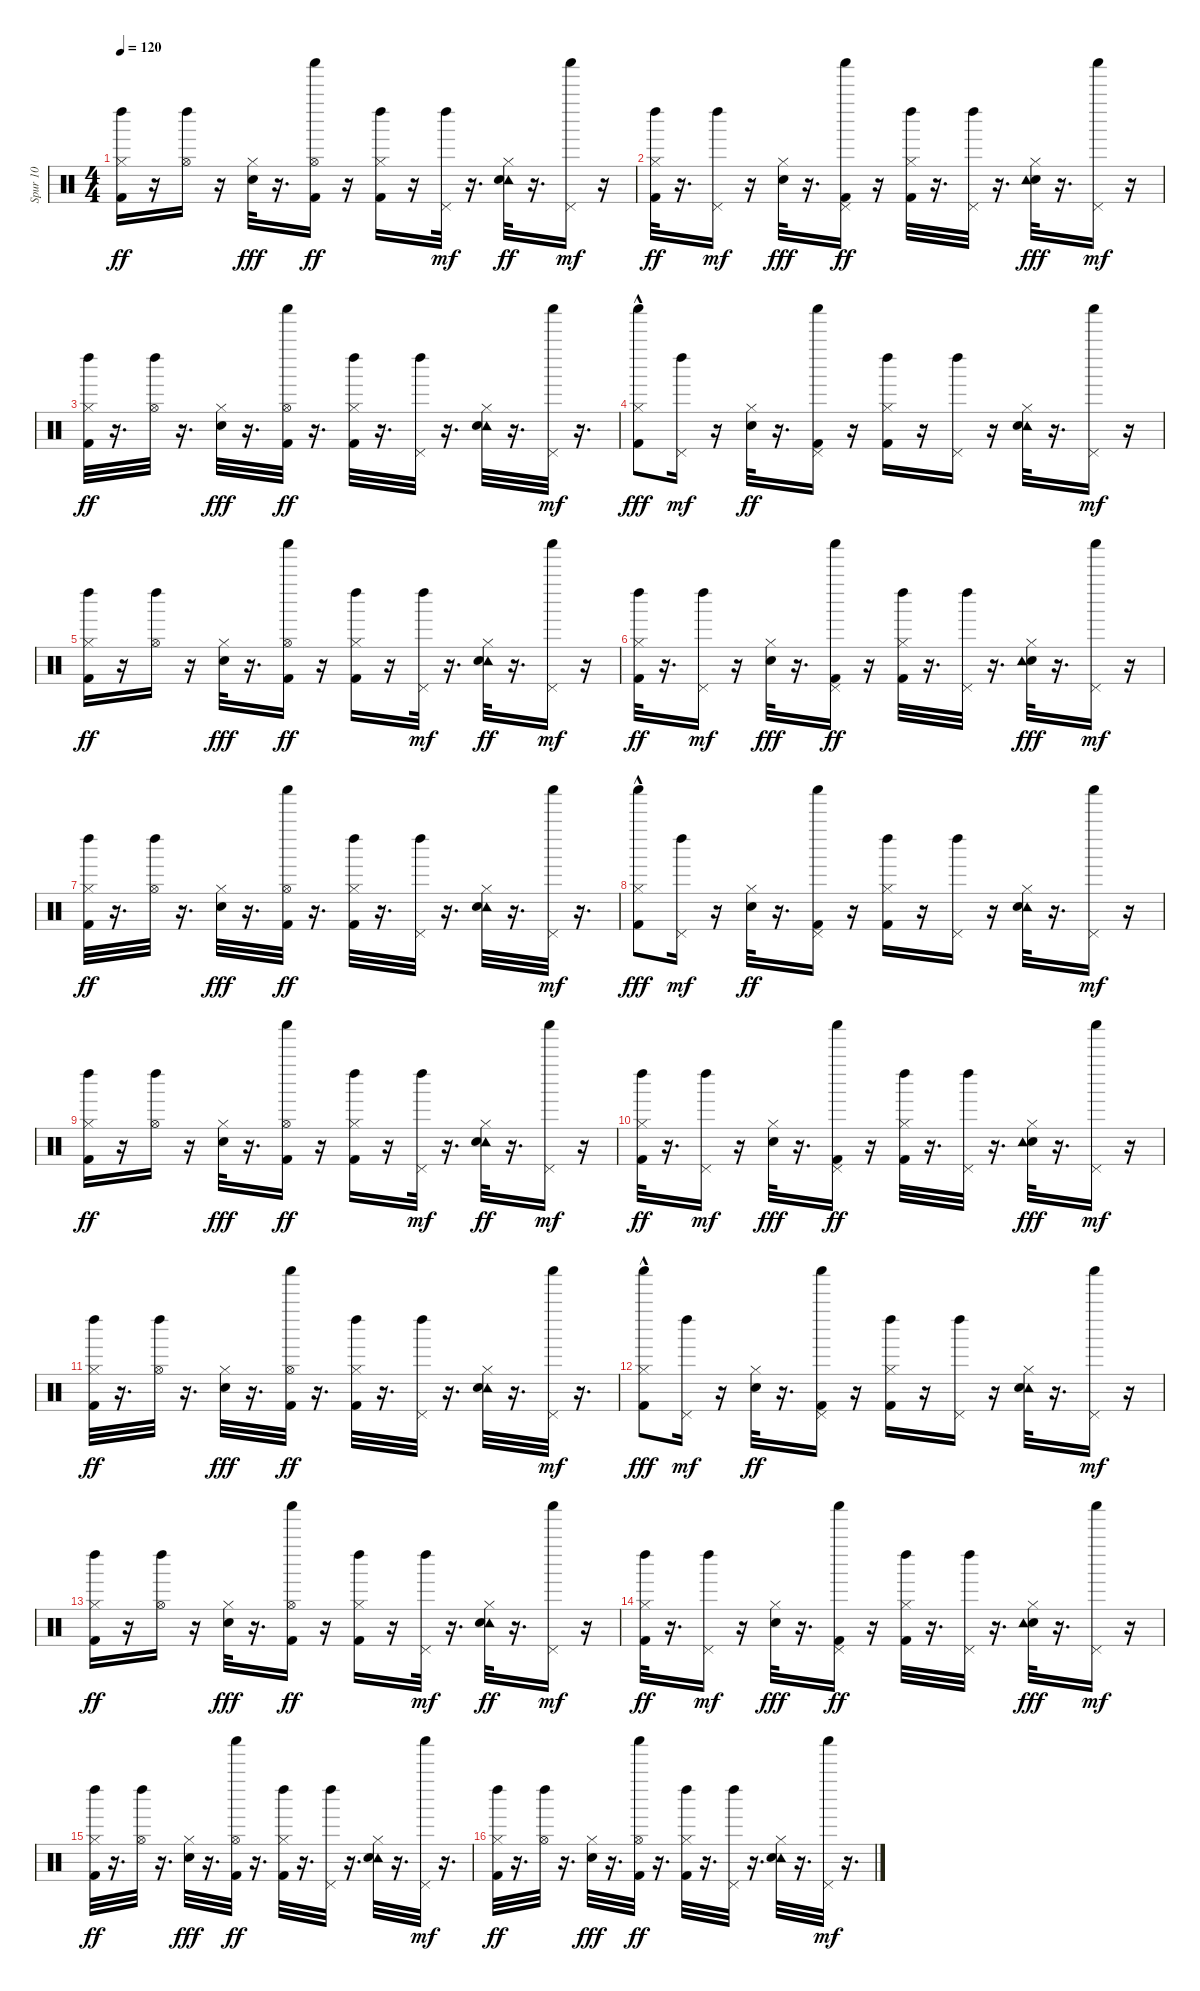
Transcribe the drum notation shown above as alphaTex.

\track ("Spur 10" "Spur 10") {instrument percussion}
\staff {score}
\articulation defaults
\ts (4 4)
\tempo 120
\clef neutral
\ks c
("Kick (hit) 2" "Hi-Hat (closed)" "Left Maraca (hit)").16{dy ff} r.16 ("Left Maraca (hit)" "Hi-Hat (open)").16 r.16 ("Hi-Hat (closed)" "Electric Snare (hit)").32{dy fff} r.16{d} ("Shaker (hit)" "Hi-Hat (open)" "Kick (hit) 2").16{dy ff} r.16 ("Left Maraca (hit)" "Hi-Hat (closed)" "Kick (hit) 2").16 r.16 ("Left Maraca (hit)" "Pedal Hi-Hat (hit)").32{dy mf} r.16{d} ("Tambourine (hit)" "Electric Snare (hit)" "Hi-Hat (closed)").32{dy ff} r.16{d} ("Shaker (hit)" "Pedal Hi-Hat (hit)").16{dy mf} r.16 |
("Kick (hit) 2" "Hi-Hat (closed)" "Left Maraca (hit)").32{dy ff} r.16{d} ("Left Maraca (hit)" "Pedal Hi-Hat (hit)").16{dy mf} r.16 ("Hi-Hat (closed)" "Electric Snare (hit)").32{dy fff} r.16{d} ("Shaker (hit)" "Kick (hit) 2" "Pedal Hi-Hat (hit)").16{dy ff} r.16 ("Left Maraca (hit)" "Hi-Hat (closed)" "Kick (hit) 2").32 r.16{d} ("Pedal Hi-Hat (hit)" "Left Maraca (hit)").32 r.16{d} ("Hi-Hat (closed)" "Electric Snare (hit)" "Tambourine (hit)").32{dy fff} r.16{d} ("Shaker (hit)" "Pedal Hi-Hat (hit)").16{dy mf} r.16 |
("Kick (hit) 2" "Hi-Hat (closed)" "Left Maraca (hit)").32{dy ff} r.16{d} ("Left Maraca (hit)" "Hi-Hat (open)").32 r.16{d} ("Electric Snare (hit)" "Hi-Hat (closed)").32{dy fff} r.16{d} ("Hi-Hat (open)" "Kick (hit) 2" "Shaker (hit)").32{dy ff} r.16{d} ("Left Maraca (hit)" "Hi-Hat (closed)" "Kick (hit) 2").32 r.16{d} ("Left Maraca (hit)" "Pedal Hi-Hat (hit)").32 r.16{d} ("Tambourine (hit)" "Electric Snare (hit)" "Hi-Hat (closed)").32 r.16{d} ("Pedal Hi-Hat (hit)" "Shaker (hit)").32{dy mf} r.16{d} |
("Shaker (hit)"{hac} "Kick (hit) 2" "Hi-Hat (closed)").8{dy fff} ("Left Maraca (hit)" "Pedal Hi-Hat (hit)").16{dy mf} r.16 ("Electric Snare (hit)" "Hi-Hat (closed)").32{dy ff} r.16{d} ("Shaker (hit)" "Kick (hit) 2" "Pedal Hi-Hat (hit)").16 r.16 ("Left Maraca (hit)" "Hi-Hat (closed)" "Kick (hit) 2").16 r.16 ("Left Maraca (hit)" "Pedal Hi-Hat (hit)").16 r.16 ("Tambourine (hit)" "Electric Snare (hit)" "Hi-Hat (closed)").32 r.16{d} ("Pedal Hi-Hat (hit)" "Shaker (hit)").16{dy mf} r.16 |
("Kick (hit) 2" "Hi-Hat (closed)" "Left Maraca (hit)").16{dy ff} r.16 ("Left Maraca (hit)" "Hi-Hat (open)").16 r.16 ("Hi-Hat (closed)" "Electric Snare (hit)").32{dy fff} r.16{d} ("Shaker (hit)" "Hi-Hat (open)" "Kick (hit) 2").16{dy ff} r.16 ("Left Maraca (hit)" "Hi-Hat (closed)" "Kick (hit) 2").16 r.16 ("Left Maraca (hit)" "Pedal Hi-Hat (hit)").32{dy mf} r.16{d} ("Tambourine (hit)" "Electric Snare (hit)" "Hi-Hat (closed)").32{dy ff} r.16{d} ("Shaker (hit)" "Pedal Hi-Hat (hit)").16{dy mf} r.16 |
("Kick (hit) 2" "Hi-Hat (closed)" "Left Maraca (hit)").32{dy ff} r.16{d} ("Left Maraca (hit)" "Pedal Hi-Hat (hit)").16{dy mf} r.16 ("Hi-Hat (closed)" "Electric Snare (hit)").32{dy fff} r.16{d} ("Shaker (hit)" "Kick (hit) 2" "Pedal Hi-Hat (hit)").16{dy ff} r.16 ("Left Maraca (hit)" "Hi-Hat (closed)" "Kick (hit) 2").32 r.16{d} ("Pedal Hi-Hat (hit)" "Left Maraca (hit)").32 r.16{d} ("Hi-Hat (closed)" "Electric Snare (hit)" "Tambourine (hit)").32{dy fff} r.16{d} ("Shaker (hit)" "Pedal Hi-Hat (hit)").16{dy mf} r.16 |
("Kick (hit) 2" "Hi-Hat (closed)" "Left Maraca (hit)").32{dy ff} r.16{d} ("Left Maraca (hit)" "Hi-Hat (open)").32 r.16{d} ("Electric Snare (hit)" "Hi-Hat (closed)").32{dy fff} r.16{d} ("Hi-Hat (open)" "Kick (hit) 2" "Shaker (hit)").32{dy ff} r.16{d} ("Left Maraca (hit)" "Hi-Hat (closed)" "Kick (hit) 2").32 r.16{d} ("Left Maraca (hit)" "Pedal Hi-Hat (hit)").32 r.16{d} ("Tambourine (hit)" "Electric Snare (hit)" "Hi-Hat (closed)").32 r.16{d} ("Pedal Hi-Hat (hit)" "Shaker (hit)").32{dy mf} r.16{d} |
("Shaker (hit)"{hac} "Kick (hit) 2" "Hi-Hat (closed)").8{dy fff} ("Left Maraca (hit)" "Pedal Hi-Hat (hit)").16{dy mf} r.16 ("Electric Snare (hit)" "Hi-Hat (closed)").32{dy ff} r.16{d} ("Shaker (hit)" "Kick (hit) 2" "Pedal Hi-Hat (hit)").16 r.16 ("Left Maraca (hit)" "Hi-Hat (closed)" "Kick (hit) 2").16 r.16 ("Left Maraca (hit)" "Pedal Hi-Hat (hit)").16 r.16 ("Tambourine (hit)" "Electric Snare (hit)" "Hi-Hat (closed)").32 r.16{d} ("Pedal Hi-Hat (hit)" "Shaker (hit)").16{dy mf} r.16 |
("Kick (hit) 2" "Hi-Hat (closed)" "Left Maraca (hit)").16{dy ff} r.16 ("Left Maraca (hit)" "Hi-Hat (open)").16 r.16 ("Hi-Hat (closed)" "Electric Snare (hit)").32{dy fff} r.16{d} ("Shaker (hit)" "Hi-Hat (open)" "Kick (hit) 2").16{dy ff} r.16 ("Left Maraca (hit)" "Hi-Hat (closed)" "Kick (hit) 2").16 r.16 ("Left Maraca (hit)" "Pedal Hi-Hat (hit)").32{dy mf} r.16{d} ("Tambourine (hit)" "Electric Snare (hit)" "Hi-Hat (closed)").32{dy ff} r.16{d} ("Shaker (hit)" "Pedal Hi-Hat (hit)").16{dy mf} r.16 |
("Kick (hit) 2" "Hi-Hat (closed)" "Left Maraca (hit)").32{dy ff} r.16{d} ("Left Maraca (hit)" "Pedal Hi-Hat (hit)").16{dy mf} r.16 ("Hi-Hat (closed)" "Electric Snare (hit)").32{dy fff} r.16{d} ("Shaker (hit)" "Kick (hit) 2" "Pedal Hi-Hat (hit)").16{dy ff} r.16 ("Left Maraca (hit)" "Hi-Hat (closed)" "Kick (hit) 2").32 r.16{d} ("Pedal Hi-Hat (hit)" "Left Maraca (hit)").32 r.16{d} ("Hi-Hat (closed)" "Electric Snare (hit)" "Tambourine (hit)").32{dy fff} r.16{d} ("Shaker (hit)" "Pedal Hi-Hat (hit)").16{dy mf} r.16 |
("Kick (hit) 2" "Hi-Hat (closed)" "Left Maraca (hit)").32{dy ff} r.16{d} ("Left Maraca (hit)" "Hi-Hat (open)").32 r.16{d} ("Electric Snare (hit)" "Hi-Hat (closed)").32{dy fff} r.16{d} ("Hi-Hat (open)" "Kick (hit) 2" "Shaker (hit)").32{dy ff} r.16{d} ("Left Maraca (hit)" "Hi-Hat (closed)" "Kick (hit) 2").32 r.16{d} ("Left Maraca (hit)" "Pedal Hi-Hat (hit)").32 r.16{d} ("Tambourine (hit)" "Electric Snare (hit)" "Hi-Hat (closed)").32 r.16{d} ("Pedal Hi-Hat (hit)" "Shaker (hit)").32{dy mf} r.16{d} |
("Shaker (hit)"{hac} "Kick (hit) 2" "Hi-Hat (closed)").8{dy fff} ("Left Maraca (hit)" "Pedal Hi-Hat (hit)").16{dy mf} r.16 ("Electric Snare (hit)" "Hi-Hat (closed)").32{dy ff} r.16{d} ("Shaker (hit)" "Kick (hit) 2" "Pedal Hi-Hat (hit)").16 r.16 ("Left Maraca (hit)" "Hi-Hat (closed)" "Kick (hit) 2").16 r.16 ("Left Maraca (hit)" "Pedal Hi-Hat (hit)").16 r.16 ("Tambourine (hit)" "Electric Snare (hit)" "Hi-Hat (closed)").32 r.16{d} ("Pedal Hi-Hat (hit)" "Shaker (hit)").16{dy mf} r.16 |
("Kick (hit) 2" "Hi-Hat (closed)" "Left Maraca (hit)").16{dy ff} r.16 ("Left Maraca (hit)" "Hi-Hat (open)").16 r.16 ("Hi-Hat (closed)" "Electric Snare (hit)").32{dy fff} r.16{d} ("Shaker (hit)" "Hi-Hat (open)" "Kick (hit) 2").16{dy ff} r.16 ("Left Maraca (hit)" "Hi-Hat (closed)" "Kick (hit) 2").16 r.16 ("Left Maraca (hit)" "Pedal Hi-Hat (hit)").32{dy mf} r.16{d} ("Tambourine (hit)" "Electric Snare (hit)" "Hi-Hat (closed)").32{dy ff} r.16{d} ("Shaker (hit)" "Pedal Hi-Hat (hit)").16{dy mf} r.16 |
("Kick (hit) 2" "Hi-Hat (closed)" "Left Maraca (hit)").32{dy ff} r.16{d} ("Left Maraca (hit)" "Pedal Hi-Hat (hit)").16{dy mf} r.16 ("Hi-Hat (closed)" "Electric Snare (hit)").32{dy fff} r.16{d} ("Shaker (hit)" "Kick (hit) 2" "Pedal Hi-Hat (hit)").16{dy ff} r.16 ("Left Maraca (hit)" "Hi-Hat (closed)" "Kick (hit) 2").32 r.16{d} ("Pedal Hi-Hat (hit)" "Left Maraca (hit)").32 r.16{d} ("Hi-Hat (closed)" "Electric Snare (hit)" "Tambourine (hit)").32{dy fff} r.16{d} ("Shaker (hit)" "Pedal Hi-Hat (hit)").16{dy mf} r.16 |
("Kick (hit) 2" "Hi-Hat (closed)" "Left Maraca (hit)").32{dy ff} r.16{d} ("Left Maraca (hit)" "Hi-Hat (open)").32 r.16{d} ("Electric Snare (hit)" "Hi-Hat (closed)").32{dy fff} r.16{d} ("Hi-Hat (open)" "Kick (hit) 2" "Shaker (hit)").32{dy ff} r.16{d} ("Left Maraca (hit)" "Hi-Hat (closed)" "Kick (hit) 2").32 r.16{d} ("Left Maraca (hit)" "Pedal Hi-Hat (hit)").32 r.16{d} ("Tambourine (hit)" "Electric Snare (hit)" "Hi-Hat (closed)").32 r.16{d} ("Pedal Hi-Hat (hit)" "Shaker (hit)").32{dy mf} r.16{d} |
("Kick (hit) 2" "Hi-Hat (closed)" "Left Maraca (hit)").32{dy ff} r.16{d} ("Left Maraca (hit)" "Hi-Hat (open)").32 r.16{d} ("Electric Snare (hit)" "Hi-Hat (closed)").32{dy fff} r.16{d} ("Hi-Hat (open)" "Kick (hit) 2" "Shaker (hit)").32{dy ff} r.16{d} ("Left Maraca (hit)" "Hi-Hat (closed)" "Kick (hit) 2").32 r.16{d} ("Left Maraca (hit)" "Pedal Hi-Hat (hit)").32 r.16{d} ("Tambourine (hit)" "Electric Snare (hit)" "Hi-Hat (closed)").32 r.16{d} ("Pedal Hi-Hat (hit)" "Shaker (hit)").32{dy mf} r.16{d}
